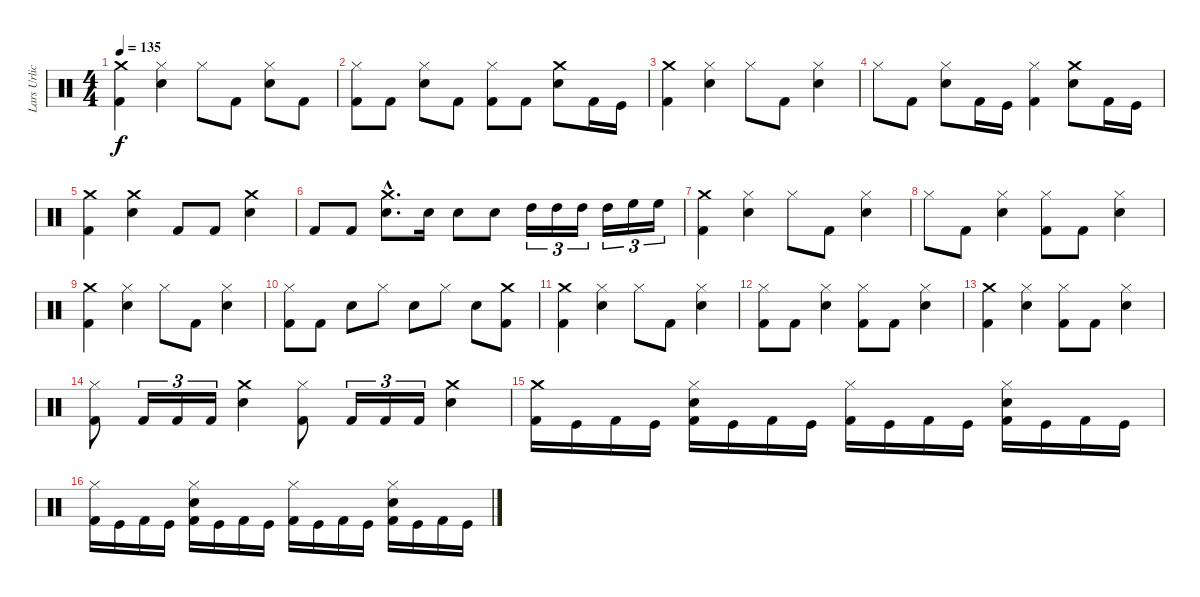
\track ("Lars Urlich (drums)" "Lars Urlic") {instrument percussion}
\staff {score}
\articulation defaults
\ts (4 4)
\tempo 135
\clef neutral
\ks c
("Kick (hit) 2" "Crash medium (hit)").4{dy f} ("Snare (hit) 2" "Hi-Hat (closed)").4 "Hi-Hat (closed)".8 "Kick (hit) 2".8 ("Hi-Hat (closed)" "Snare (hit) 2").8 "Kick (hit) 2".8 |
("Kick (hit) 2" "Hi-Hat (closed)").8 "Kick (hit) 2".8 ("Snare (hit) 2" "Hi-Hat (closed)").8 "Kick (hit) 2".8 ("Kick (hit) 2" "Hi-Hat (closed)").8 "Kick (hit) 2".8 ("Crash medium (hit)" "Snare (hit) 2").8 "Kick (hit) 2".16 "Kick (hit)".16 |
("Kick (hit) 2" "Crash medium (hit)").4 ("Snare (hit) 2" "Hi-Hat (closed)").4 "Hi-Hat (closed)".8 "Kick (hit) 2".8 ("Snare (hit) 2" "Hi-Hat (closed)").4 |
"Hi-Hat (closed)".8 "Kick (hit) 2".8 ("Snare (hit) 2" "Hi-Hat (closed)").8 "Kick (hit) 2".16 "Kick (hit)".16 ("Kick (hit) 2" "Hi-Hat (closed)").4 ("Crash medium (hit)" "Snare (hit) 2").8 "Kick (hit) 2".16 "Kick (hit)".16 |
("Kick (hit) 2" "Crash medium (hit)").4 ("Snare (hit) 2" "Crash medium (hit)").4 "Kick (hit) 2".8 "Kick (hit) 2".8 ("Crash medium (hit)" "Snare (hit) 2").4 |
"Kick (hit) 2".8 "Kick (hit) 2".8 ("Crash medium (hit)"{hac} "Snare (hit) 2"{hac}).8{d} "Snare (hit) 2".16 "Snare (hit) 2".8 "Snare (hit) 2".8 "High Tom (hit)".16{tu (3 2)} "High Tom (hit)".16{tu (3 2)} "High Tom (hit)".16{tu (3 2)} "High Tom (hit)".16{tu (3 2)} "High Floor Tom (hit)".16{tu (3 2)} "High Floor Tom (hit)".16{tu (3 2)} |
("Kick (hit) 2" "Crash medium (hit)").4 ("Snare (hit) 2" "Hi-Hat (closed)").4 "Hi-Hat (closed)".8 "Kick (hit) 2".8 ("Snare (hit) 2" "Hi-Hat (closed)").4 |
"Hi-Hat (closed)".8 "Kick (hit) 2".8 ("Snare (hit) 2" "Hi-Hat (closed)").4 ("Kick (hit) 2" "Hi-Hat (closed)").8 "Kick (hit) 2".8 ("Snare (hit) 2" "Hi-Hat (closed)").4 |
("Kick (hit) 2" "Crash medium (hit)").4 ("Snare (hit) 2" "Hi-Hat (closed)").4 "Hi-Hat (closed)".8 "Kick (hit) 2".8 ("Snare (hit) 2" "Hi-Hat (closed)").4 |
("Kick (hit) 2" "Hi-Hat (closed)").8 "Kick (hit) 2".8 "Snare (hit) 2".8 "Hi-Hat (closed)".8 "Snare (hit) 2".8 "Hi-Hat (closed)".8 "Snare (hit) 2".8 ("Kick (hit) 2" "Crash medium (hit)").8 |
("Kick (hit) 2" "Crash medium (hit)").4 ("Snare (hit) 2" "Hi-Hat (closed)").4 "Hi-Hat (closed)".8 "Kick (hit) 2".8 ("Snare (hit) 2" "Hi-Hat (closed)").4 |
("Hi-Hat (closed)" "Kick (hit) 2").8 "Kick (hit) 2".8 ("Snare (hit) 2" "Hi-Hat (closed)").4 ("Hi-Hat (closed)" "Kick (hit) 2").8 "Kick (hit) 2".8 ("Snare (hit) 2" "Hi-Hat (closed)").4 |
("Kick (hit) 2" "Crash medium (hit)").4 ("Snare (hit) 2" "Hi-Hat (closed)").4 ("Hi-Hat (closed)" "Kick (hit) 2").8 "Kick (hit) 2".8 ("Snare (hit) 2" "Hi-Hat (closed)").4 |
("Kick (hit) 2" "Hi-Hat (closed)").8 "Kick (hit) 2".16{tu (3 2)} "Kick (hit) 2".16{tu (3 2)} "Kick (hit) 2".16{tu (3 2)} ("Crash medium (hit)" "Snare (hit) 2").4 ("Kick (hit) 2" "Hi-Hat (closed)").8 "Kick (hit) 2".16{tu (3 2)} "Kick (hit) 2".16{tu (3 2)} "Kick (hit) 2".16{tu (3 2)} ("Snare (hit) 2" "Crash medium (hit)").4 |
("Crash medium (hit)" "Kick (hit) 2").16 "Kick (hit)".16 "Kick (hit) 2".16 "Kick (hit)".16 ("Snare (hit) 2" "Hi-Hat (closed)" "Kick (hit) 2").16 "Kick (hit)".16 "Kick (hit) 2".16 "Kick (hit)".16 ("Hi-Hat (closed)" "Kick (hit) 2").16 "Kick (hit)".16 "Kick (hit) 2".16 "Kick (hit)".16 ("Snare (hit) 2" "Hi-Hat (closed)" "Kick (hit) 2").16 "Kick (hit)".16 "Kick (hit) 2".16 "Kick (hit)".16 |
("Hi-Hat (closed)" "Kick (hit) 2").16 "Kick (hit)".16 "Kick (hit) 2".16 "Kick (hit)".16 ("Snare (hit) 2" "Hi-Hat (closed)" "Kick (hit) 2").16 "Kick (hit)".16 "Kick (hit) 2".16 "Kick (hit)".16 ("Hi-Hat (closed)" "Kick (hit) 2").16 "Kick (hit)".16 "Kick (hit) 2".16 "Kick (hit)".16 ("Snare (hit) 2" "Hi-Hat (closed)" "Kick (hit) 2").16 "Kick (hit)".16 "Kick (hit) 2".16 "Kick (hit)".16
